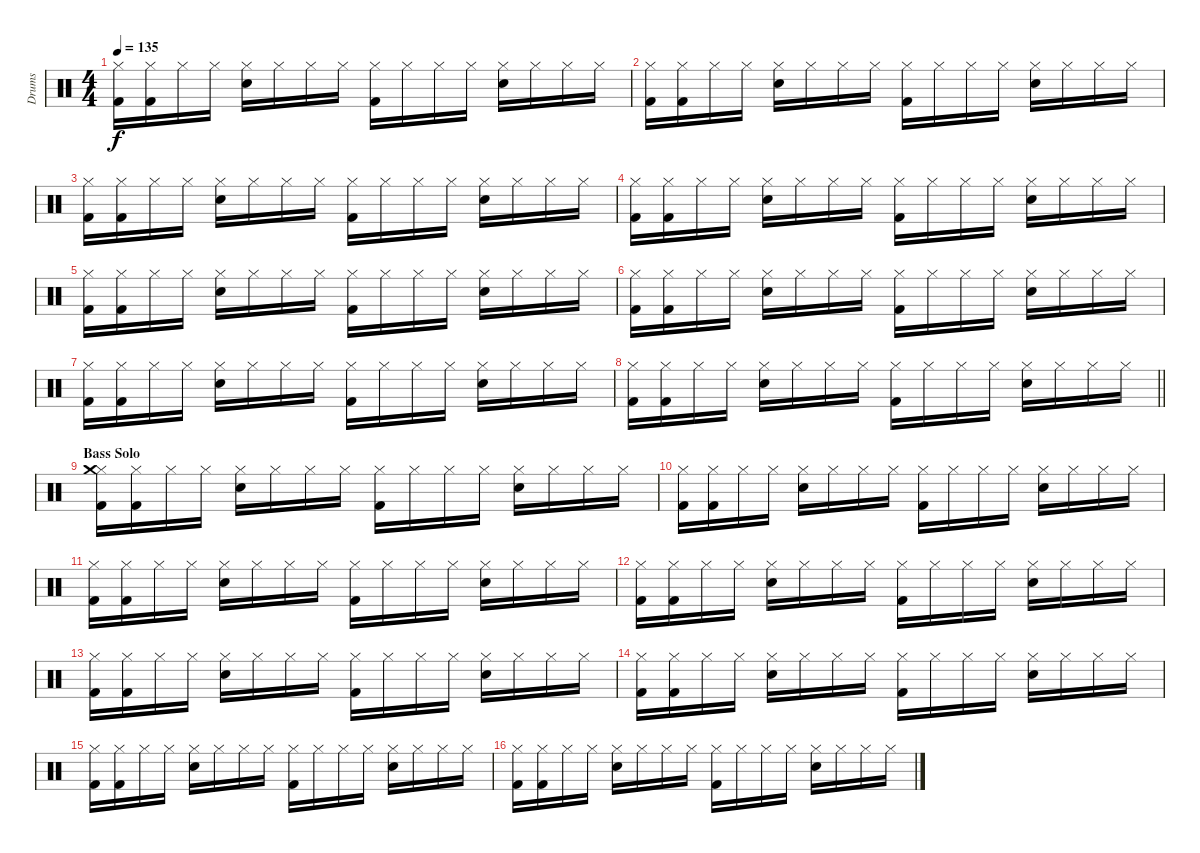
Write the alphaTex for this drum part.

\track ("Drums" "Drums") {instrument percussion}
\staff {score}
\articulation defaults
\ts (4 4)
\tempo 135
\clef neutral
\ks c
("Hi-Hat (closed)" "Kick (hit) 2").16{dy f} ("Hi-Hat (closed)" "Kick (hit) 2").16 "Hi-Hat (closed)".16 "Hi-Hat (closed)".16 ("Hi-Hat (closed)" "Snare (hit) 2").16 "Hi-Hat (closed)".16 "Hi-Hat (closed)".16 "Hi-Hat (closed)".16 ("Hi-Hat (closed)" "Kick (hit) 2").16 "Hi-Hat (closed)".16 "Hi-Hat (closed)".16 "Hi-Hat (closed)".16 ("Hi-Hat (closed)" "Snare (hit) 2").16 "Hi-Hat (closed)".16 "Hi-Hat (closed)".16 "Hi-Hat (closed)".16 |
("Hi-Hat (closed)" "Kick (hit) 2").16 ("Hi-Hat (closed)" "Kick (hit) 2").16 "Hi-Hat (closed)".16 "Hi-Hat (closed)".16 ("Hi-Hat (closed)" "Snare (hit) 2").16 "Hi-Hat (closed)".16 "Hi-Hat (closed)".16 "Hi-Hat (closed)".16 ("Hi-Hat (closed)" "Kick (hit) 2").16 "Hi-Hat (closed)".16 "Hi-Hat (closed)".16 "Hi-Hat (closed)".16 ("Hi-Hat (closed)" "Snare (hit) 2").16 "Hi-Hat (closed)".16 "Hi-Hat (closed)".16 "Hi-Hat (closed)".16 |
("Hi-Hat (closed)" "Kick (hit) 2").16 ("Hi-Hat (closed)" "Kick (hit) 2").16 "Hi-Hat (closed)".16 "Hi-Hat (closed)".16 ("Hi-Hat (closed)" "Snare (hit) 2").16 "Hi-Hat (closed)".16 "Hi-Hat (closed)".16 "Hi-Hat (closed)".16 ("Hi-Hat (closed)" "Kick (hit) 2").16 "Hi-Hat (closed)".16 "Hi-Hat (closed)".16 "Hi-Hat (closed)".16 ("Hi-Hat (closed)" "Snare (hit) 2").16 "Hi-Hat (closed)".16 "Hi-Hat (closed)".16 "Hi-Hat (closed)".16 |
("Hi-Hat (closed)" "Kick (hit) 2").16 ("Hi-Hat (closed)" "Kick (hit) 2").16 "Hi-Hat (closed)".16 "Hi-Hat (closed)".16 ("Hi-Hat (closed)" "Snare (hit) 2").16 "Hi-Hat (closed)".16 "Hi-Hat (closed)".16 "Hi-Hat (closed)".16 ("Hi-Hat (closed)" "Kick (hit) 2").16 "Hi-Hat (closed)".16 "Hi-Hat (closed)".16 "Hi-Hat (closed)".16 ("Hi-Hat (closed)" "Snare (hit) 2").16 "Hi-Hat (closed)".16 "Hi-Hat (closed)".16 "Hi-Hat (closed)".16 |
("Hi-Hat (closed)" "Kick (hit) 2").16 ("Hi-Hat (closed)" "Kick (hit) 2").16 "Hi-Hat (closed)".16 "Hi-Hat (closed)".16 ("Hi-Hat (closed)" "Snare (hit) 2").16 "Hi-Hat (closed)".16 "Hi-Hat (closed)".16 "Hi-Hat (closed)".16 ("Hi-Hat (closed)" "Kick (hit) 2").16 "Hi-Hat (closed)".16 "Hi-Hat (closed)".16 "Hi-Hat (closed)".16 ("Hi-Hat (closed)" "Snare (hit) 2").16 "Hi-Hat (closed)".16 "Hi-Hat (closed)".16 "Hi-Hat (closed)".16 |
("Hi-Hat (closed)" "Kick (hit) 2").16 ("Hi-Hat (closed)" "Kick (hit) 2").16 "Hi-Hat (closed)".16 "Hi-Hat (closed)".16 ("Hi-Hat (closed)" "Snare (hit) 2").16 "Hi-Hat (closed)".16 "Hi-Hat (closed)".16 "Hi-Hat (closed)".16 ("Hi-Hat (closed)" "Kick (hit) 2").16 "Hi-Hat (closed)".16 "Hi-Hat (closed)".16 "Hi-Hat (closed)".16 ("Hi-Hat (closed)" "Snare (hit) 2").16 "Hi-Hat (closed)".16 "Hi-Hat (closed)".16 "Hi-Hat (closed)".16 |
("Hi-Hat (closed)" "Kick (hit) 2").16 ("Hi-Hat (closed)" "Kick (hit) 2").16 "Hi-Hat (closed)".16 "Hi-Hat (closed)".16 ("Hi-Hat (closed)" "Snare (hit) 2").16 "Hi-Hat (closed)".16 "Hi-Hat (closed)".16 "Hi-Hat (closed)".16 ("Hi-Hat (closed)" "Kick (hit) 2").16 "Hi-Hat (closed)".16 "Hi-Hat (closed)".16 "Hi-Hat (closed)".16 ("Hi-Hat (closed)" "Snare (hit) 2").16 "Hi-Hat (closed)".16 "Hi-Hat (closed)".16 "Hi-Hat (closed)".16 |
\barLineRight lightlight
("Hi-Hat (closed)" "Kick (hit) 2").16 ("Hi-Hat (closed)" "Kick (hit) 2").16 "Hi-Hat (closed)".16 "Hi-Hat (closed)".16 ("Hi-Hat (closed)" "Snare (hit) 2").16 "Hi-Hat (closed)".16 "Hi-Hat (closed)".16 "Hi-Hat (closed)".16 ("Hi-Hat (closed)" "Kick (hit) 2").16 "Hi-Hat (closed)".16 "Hi-Hat (closed)".16 "Hi-Hat (closed)".16 ("Hi-Hat (closed)" "Snare (hit) 2").16 "Hi-Hat (closed)".16 "Hi-Hat (closed)".16 "Hi-Hat (closed)".16 |
\section ("" "Bass Solo")
("Hi-Hat (closed)" "Kick (hit) 2" "Crash medium (hit)").16 ("Hi-Hat (closed)" "Kick (hit) 2").16 "Hi-Hat (closed)".16 "Hi-Hat (closed)".16 ("Hi-Hat (closed)" "Snare (hit) 2").16 "Hi-Hat (closed)".16 "Hi-Hat (closed)".16 "Hi-Hat (closed)".16 ("Hi-Hat (closed)" "Kick (hit) 2").16 "Hi-Hat (closed)".16 "Hi-Hat (closed)".16 "Hi-Hat (closed)".16 ("Hi-Hat (closed)" "Snare (hit) 2").16 "Hi-Hat (closed)".16 "Hi-Hat (closed)".16 "Hi-Hat (closed)".16 |
("Hi-Hat (closed)" "Kick (hit) 2").16 ("Hi-Hat (closed)" "Kick (hit) 2").16 "Hi-Hat (closed)".16 "Hi-Hat (closed)".16 ("Hi-Hat (closed)" "Snare (hit) 2").16 "Hi-Hat (closed)".16 "Hi-Hat (closed)".16 "Hi-Hat (closed)".16 ("Hi-Hat (closed)" "Kick (hit) 2").16 "Hi-Hat (closed)".16 "Hi-Hat (closed)".16 "Hi-Hat (closed)".16 ("Hi-Hat (closed)" "Snare (hit) 2").16 "Hi-Hat (closed)".16 "Hi-Hat (closed)".16 "Hi-Hat (closed)".16 |
("Hi-Hat (closed)" "Kick (hit) 2").16 ("Hi-Hat (closed)" "Kick (hit) 2").16 "Hi-Hat (closed)".16 "Hi-Hat (closed)".16 ("Hi-Hat (closed)" "Snare (hit) 2").16 "Hi-Hat (closed)".16 "Hi-Hat (closed)".16 "Hi-Hat (closed)".16 ("Hi-Hat (closed)" "Kick (hit) 2").16 "Hi-Hat (closed)".16 "Hi-Hat (closed)".16 "Hi-Hat (closed)".16 ("Hi-Hat (closed)" "Snare (hit) 2").16 "Hi-Hat (closed)".16 "Hi-Hat (closed)".16 "Hi-Hat (closed)".16 |
("Hi-Hat (closed)" "Kick (hit) 2").16 ("Hi-Hat (closed)" "Kick (hit) 2").16 "Hi-Hat (closed)".16 "Hi-Hat (closed)".16 ("Hi-Hat (closed)" "Snare (hit) 2").16 "Hi-Hat (closed)".16 "Hi-Hat (closed)".16 "Hi-Hat (closed)".16 ("Hi-Hat (closed)" "Kick (hit) 2").16 "Hi-Hat (closed)".16 "Hi-Hat (closed)".16 "Hi-Hat (closed)".16 ("Hi-Hat (closed)" "Snare (hit) 2").16 "Hi-Hat (closed)".16 "Hi-Hat (closed)".16 "Hi-Hat (closed)".16 |
("Hi-Hat (closed)" "Kick (hit) 2").16 ("Hi-Hat (closed)" "Kick (hit) 2").16 "Hi-Hat (closed)".16 "Hi-Hat (closed)".16 ("Hi-Hat (closed)" "Snare (hit) 2").16 "Hi-Hat (closed)".16 "Hi-Hat (closed)".16 "Hi-Hat (closed)".16 ("Hi-Hat (closed)" "Kick (hit) 2").16 "Hi-Hat (closed)".16 "Hi-Hat (closed)".16 "Hi-Hat (closed)".16 ("Hi-Hat (closed)" "Snare (hit) 2").16 "Hi-Hat (closed)".16 "Hi-Hat (closed)".16 "Hi-Hat (closed)".16 |
("Hi-Hat (closed)" "Kick (hit) 2").16 ("Hi-Hat (closed)" "Kick (hit) 2").16 "Hi-Hat (closed)".16 "Hi-Hat (closed)".16 ("Hi-Hat (closed)" "Snare (hit) 2").16 "Hi-Hat (closed)".16 "Hi-Hat (closed)".16 "Hi-Hat (closed)".16 ("Hi-Hat (closed)" "Kick (hit) 2").16 "Hi-Hat (closed)".16 "Hi-Hat (closed)".16 "Hi-Hat (closed)".16 ("Hi-Hat (closed)" "Snare (hit) 2").16 "Hi-Hat (closed)".16 "Hi-Hat (closed)".16 "Hi-Hat (closed)".16 |
("Hi-Hat (closed)" "Kick (hit) 2").16 ("Hi-Hat (closed)" "Kick (hit) 2").16 "Hi-Hat (closed)".16 "Hi-Hat (closed)".16 ("Hi-Hat (closed)" "Snare (hit) 2").16 "Hi-Hat (closed)".16 "Hi-Hat (closed)".16 "Hi-Hat (closed)".16 ("Hi-Hat (closed)" "Kick (hit) 2").16 "Hi-Hat (closed)".16 "Hi-Hat (closed)".16 "Hi-Hat (closed)".16 ("Hi-Hat (closed)" "Snare (hit) 2").16 "Hi-Hat (closed)".16 "Hi-Hat (closed)".16 "Hi-Hat (closed)".16 |
("Hi-Hat (closed)" "Kick (hit) 2").16 ("Hi-Hat (closed)" "Kick (hit) 2").16 "Hi-Hat (closed)".16 "Hi-Hat (closed)".16 ("Hi-Hat (closed)" "Snare (hit) 2").16 "Hi-Hat (closed)".16 "Hi-Hat (closed)".16 "Hi-Hat (closed)".16 ("Hi-Hat (closed)" "Kick (hit) 2").16 "Hi-Hat (closed)".16 "Hi-Hat (closed)".16 "Hi-Hat (closed)".16 ("Hi-Hat (closed)" "Snare (hit) 2").16 "Hi-Hat (closed)".16 "Hi-Hat (closed)".16 "Hi-Hat (closed)".16
